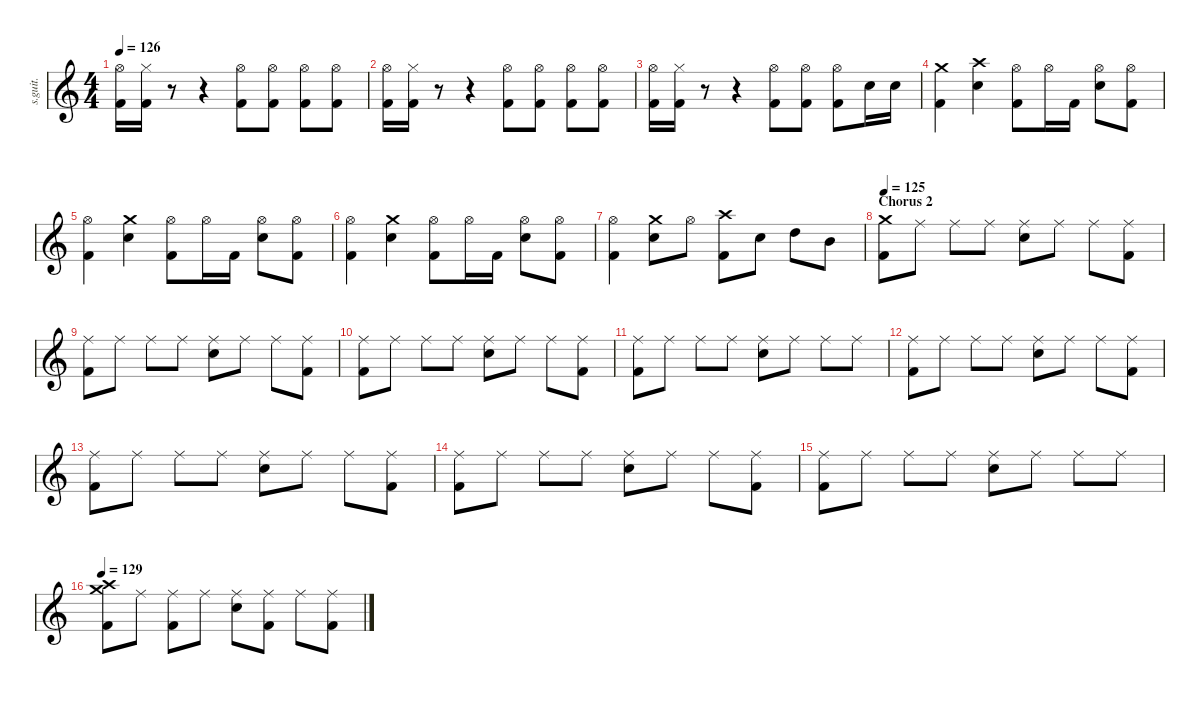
\defaultSystemsLayout 4
\hideDynamics
\bracketExtendMode nobrackets
\track ("John Dolmayan" "s.guit.") {instrument percussion}
\staff {score}
\articulation defaults
\ts (4 4)
\tempo 126
\clef g2
\ks c
("Hi-Hat (open)" "Kick (hit) 2").16{lyrics (0 "") lyrics (1 "") lyrics (2 "") lyrics (3 "") lyrics (4 "") dy f} ("Hi-Hat (closed)" "Kick (hit) 2").16{lyrics (0 "") lyrics (1 "") lyrics (2 "") lyrics (3 "") lyrics (4 "")} r.8 r.4 ("Hi-Hat (open)" "Kick (hit) 2").8{lyrics (0 "") lyrics (1 "") lyrics (2 "") lyrics (3 "") lyrics (4 "") dy ff} ("Hi-Hat (open)" "Kick (hit) 2").8{lyrics (0 "") lyrics (1 "") lyrics (2 "") lyrics (3 "") lyrics (4 "")} ("Hi-Hat (open)" "Kick (hit) 2").8{lyrics (0 "") lyrics (1 "") lyrics (2 "") lyrics (3 "") lyrics (4 "")} ("Hi-Hat (open)" "Kick (hit) 2").8{lyrics (0 "") lyrics (1 "") lyrics (2 "") lyrics (3 "") lyrics (4 "")} |
("Hi-Hat (open)" "Kick (hit) 2").16{lyrics (0 "") lyrics (1 "") lyrics (2 "") lyrics (3 "") lyrics (4 "") dy f} ("Hi-Hat (closed)" "Kick (hit) 2").16{lyrics (0 "") lyrics (1 "") lyrics (2 "") lyrics (3 "") lyrics (4 "")} r.8 r.4 ("Hi-Hat (open)" "Kick (hit) 2").8{lyrics (0 "") lyrics (1 "") lyrics (2 "") lyrics (3 "") lyrics (4 "") dy ff} ("Hi-Hat (open)" "Kick (hit) 2").8{lyrics (0 "") lyrics (1 "") lyrics (2 "") lyrics (3 "") lyrics (4 "")} ("Hi-Hat (open)" "Kick (hit) 2").8{lyrics (0 "") lyrics (1 "") lyrics (2 "") lyrics (3 "") lyrics (4 "")} ("Hi-Hat (open)" "Kick (hit) 2").8{lyrics (0 "") lyrics (1 "") lyrics (2 "") lyrics (3 "") lyrics (4 "")} |
("Hi-Hat (open)" "Kick (hit) 2").16{lyrics (0 "") lyrics (1 "") lyrics (2 "") lyrics (3 "") lyrics (4 "") dy f} ("Hi-Hat (closed)" "Kick (hit) 2").16{lyrics (0 "") lyrics (1 "") lyrics (2 "") lyrics (3 "") lyrics (4 "")} r.8 r.4 ("Hi-Hat (open)" "Kick (hit) 2").8{lyrics (0 "") lyrics (1 "") lyrics (2 "") lyrics (3 "") lyrics (4 "")} ("Hi-Hat (open)" "Kick (hit) 2").8{lyrics (0 "") lyrics (1 "") lyrics (2 "") lyrics (3 "") lyrics (4 "")} ("Hi-Hat (open)" "Kick (hit) 2").8{lyrics (0 "") lyrics (1 "") lyrics (2 "") lyrics (3 "") lyrics (4 "")} "Snare (hit) 2".16{lyrics (0 "") lyrics (1 "") lyrics (2 "") lyrics (3 "") lyrics (4 "")} "Snare (hit) 2".16{lyrics (0 "") lyrics (1 "") lyrics (2 "") lyrics (3 "") lyrics (4 "")} |
("Crash medium (hit)" "Kick (hit) 2").4{lyrics (0 "") lyrics (1 "") lyrics (2 "") lyrics (3 "") lyrics (4 "")} ("Crash high (hit)" "Snare (hit) 2").4{lyrics (0 "") lyrics (1 "") lyrics (2 "") lyrics (3 "") lyrics (4 "")} ("Hi-Hat (open)" "Kick (hit) 2").8{lyrics (0 "") lyrics (1 "") lyrics (2 "") lyrics (3 "") lyrics (4 "")} "Hi-Hat (open)".16{lyrics (0 "") lyrics (1 "") lyrics (2 "") lyrics (3 "") lyrics (4 "")} "Kick (hit) 2".16{lyrics (0 "") lyrics (1 "") lyrics (2 "") lyrics (3 "") lyrics (4 "")} ("Hi-Hat (open)" "Snare (hit) 2").8{lyrics (0 "") lyrics (1 "") lyrics (2 "") lyrics (3 "") lyrics (4 "")} ("Hi-Hat (open)" "Kick (hit) 2").8{lyrics (0 "") lyrics (1 "") lyrics (2 "") lyrics (3 "") lyrics (4 "")} |
("Hi-Hat (open)" "Kick (hit) 2").4{lyrics (0 "") lyrics (1 "") lyrics (2 "") lyrics (3 "") lyrics (4 "")} ("Crash medium (hit)" "Snare (hit) 2").4{lyrics (0 "") lyrics (1 "") lyrics (2 "") lyrics (3 "") lyrics (4 "")} ("Hi-Hat (open)" "Kick (hit) 2").8{lyrics (0 "") lyrics (1 "") lyrics (2 "") lyrics (3 "") lyrics (4 "")} "Hi-Hat (open)".16{lyrics (0 "") lyrics (1 "") lyrics (2 "") lyrics (3 "") lyrics (4 "")} "Kick (hit) 2".16{lyrics (0 "") lyrics (1 "") lyrics (2 "") lyrics (3 "") lyrics (4 "")} ("Hi-Hat (open)" "Snare (hit) 2").8{lyrics (0 "") lyrics (1 "") lyrics (2 "") lyrics (3 "") lyrics (4 "")} ("Hi-Hat (open)" "Kick (hit) 2").8{lyrics (0 "") lyrics (1 "") lyrics (2 "") lyrics (3 "") lyrics (4 "")} |
("Hi-Hat (open)" "Kick (hit) 2").4{lyrics (0 "") lyrics (1 "") lyrics (2 "") lyrics (3 "") lyrics (4 "")} ("Crash medium (hit)" "Snare (hit) 2").4{lyrics (0 "") lyrics (1 "") lyrics (2 "") lyrics (3 "") lyrics (4 "")} ("Hi-Hat (open)" "Kick (hit) 2").8{lyrics (0 "") lyrics (1 "") lyrics (2 "") lyrics (3 "") lyrics (4 "")} "Hi-Hat (open)".16{lyrics (0 "") lyrics (1 "") lyrics (2 "") lyrics (3 "") lyrics (4 "")} "Kick (hit) 2".16{lyrics (0 "") lyrics (1 "") lyrics (2 "") lyrics (3 "") lyrics (4 "")} ("Hi-Hat (open)" "Snare (hit) 2").8{lyrics (0 "") lyrics (1 "") lyrics (2 "") lyrics (3 "") lyrics (4 "")} ("Hi-Hat (open)" "Kick (hit) 2").8{lyrics (0 "") lyrics (1 "") lyrics (2 "") lyrics (3 "") lyrics (4 "")} |
("Hi-Hat (open)" "Kick (hit) 2").4{lyrics (0 "") lyrics (1 "") lyrics (2 "") lyrics (3 "") lyrics (4 "")} ("Crash medium (hit)" "Snare (hit) 2").8{lyrics (0 "") lyrics (1 "") lyrics (2 "") lyrics (3 "") lyrics (4 "")} "Hi-Hat (open)".8{lyrics (0 "") lyrics (1 "") lyrics (2 "") lyrics (3 "") lyrics (4 "")} ("Crash high (hit)" "Kick (hit) 2").8{lyrics (0 "") lyrics (1 "") lyrics (2 "") lyrics (3 "") lyrics (4 "")} "Snare (hit) 2".8{lyrics (0 "") lyrics (1 "") lyrics (2 "") lyrics (3 "") lyrics (4 "")} "High Tom (hit)".8{lyrics (0 "") lyrics (1 "") lyrics (2 "") lyrics (3 "") lyrics (4 "")} "Mid Tom (hit)".8{lyrics (0 "") lyrics (1 "") lyrics (2 "") lyrics (3 "") lyrics (4 "")} |
\section ("" "Chorus 2")
\tempo 125
("Crash medium (hit)" "Kick (hit) 2").8{lyrics (0 "") lyrics (1 "") lyrics (2 "") lyrics (3 "") lyrics (4 "")} "Ride (middle)".8{lyrics (0 "") lyrics (1 "") lyrics (2 "") lyrics (3 "") lyrics (4 "")} "Ride (middle)".8{lyrics (0 "") lyrics (1 "") lyrics (2 "") lyrics (3 "") lyrics (4 "")} "Ride (middle)".8{lyrics (0 "") lyrics (1 "") lyrics (2 "") lyrics (3 "") lyrics (4 "")} ("Ride (middle)" "Snare (hit) 2").8{lyrics (0 "") lyrics (1 "") lyrics (2 "") lyrics (3 "") lyrics (4 "")} "Ride (middle)".8{lyrics (0 "") lyrics (1 "") lyrics (2 "") lyrics (3 "") lyrics (4 "")} "Ride (middle)".8{lyrics (0 "") lyrics (1 "") lyrics (2 "") lyrics (3 "") lyrics (4 "")} ("Ride (middle)" "Kick (hit) 2").8{lyrics (0 "") lyrics (1 "") lyrics (2 "") lyrics (3 "") lyrics (4 "")} |
("Ride (middle)" "Kick (hit) 2").8{lyrics (0 "") lyrics (1 "") lyrics (2 "") lyrics (3 "") lyrics (4 "")} "Ride (middle)".8{lyrics (0 "") lyrics (1 "") lyrics (2 "") lyrics (3 "") lyrics (4 "")} "Ride (middle)".8{lyrics (0 "") lyrics (1 "") lyrics (2 "") lyrics (3 "") lyrics (4 "")} "Ride (middle)".8{lyrics (0 "") lyrics (1 "") lyrics (2 "") lyrics (3 "") lyrics (4 "")} ("Ride (middle)" "Snare (hit) 2").8{lyrics (0 "") lyrics (1 "") lyrics (2 "") lyrics (3 "") lyrics (4 "")} "Ride (middle)".8{lyrics (0 "") lyrics (1 "") lyrics (2 "") lyrics (3 "") lyrics (4 "")} "Ride (middle)".8{lyrics (0 "") lyrics (1 "") lyrics (2 "") lyrics (3 "") lyrics (4 "")} ("Ride (middle)" "Kick (hit) 2").8{lyrics (0 "") lyrics (1 "") lyrics (2 "") lyrics (3 "") lyrics (4 "")} |
("Ride (middle)" "Kick (hit) 2").8{lyrics (0 "") lyrics (1 "") lyrics (2 "") lyrics (3 "") lyrics (4 "")} "Ride (middle)".8{lyrics (0 "") lyrics (1 "") lyrics (2 "") lyrics (3 "") lyrics (4 "")} "Ride (middle)".8{lyrics (0 "") lyrics (1 "") lyrics (2 "") lyrics (3 "") lyrics (4 "")} "Ride (middle)".8{lyrics (0 "") lyrics (1 "") lyrics (2 "") lyrics (3 "") lyrics (4 "")} ("Ride (middle)" "Snare (hit) 2").8{lyrics (0 "") lyrics (1 "") lyrics (2 "") lyrics (3 "") lyrics (4 "")} "Ride (middle)".8{lyrics (0 "") lyrics (1 "") lyrics (2 "") lyrics (3 "") lyrics (4 "")} "Ride (middle)".8{lyrics (0 "") lyrics (1 "") lyrics (2 "") lyrics (3 "") lyrics (4 "")} ("Ride (middle)" "Kick (hit) 2").8{lyrics (0 "") lyrics (1 "") lyrics (2 "") lyrics (3 "") lyrics (4 "")} |
("Ride (middle)" "Kick (hit) 2").8{lyrics (0 "") lyrics (1 "") lyrics (2 "") lyrics (3 "") lyrics (4 "")} "Ride (middle)".8{lyrics (0 "") lyrics (1 "") lyrics (2 "") lyrics (3 "") lyrics (4 "")} "Ride (middle)".8{lyrics (0 "") lyrics (1 "") lyrics (2 "") lyrics (3 "") lyrics (4 "")} "Ride (middle)".8{lyrics (0 "") lyrics (1 "") lyrics (2 "") lyrics (3 "") lyrics (4 "")} ("Ride (middle)" "Snare (hit) 2").8{lyrics (0 "") lyrics (1 "") lyrics (2 "") lyrics (3 "") lyrics (4 "")} "Ride (middle)".8{lyrics (0 "") lyrics (1 "") lyrics (2 "") lyrics (3 "") lyrics (4 "")} "Ride (middle)".8{lyrics (0 "") lyrics (1 "") lyrics (2 "") lyrics (3 "") lyrics (4 "")} "Ride (middle)".8{lyrics (0 "") lyrics (1 "") lyrics (2 "") lyrics (3 "") lyrics (4 "")} |
("Ride (middle)" "Kick (hit) 2").8{lyrics (0 "") lyrics (1 "") lyrics (2 "") lyrics (3 "") lyrics (4 "")} "Ride (middle)".8{lyrics (0 "") lyrics (1 "") lyrics (2 "") lyrics (3 "") lyrics (4 "")} "Ride (middle)".8{lyrics (0 "") lyrics (1 "") lyrics (2 "") lyrics (3 "") lyrics (4 "")} "Ride (middle)".8{lyrics (0 "") lyrics (1 "") lyrics (2 "") lyrics (3 "") lyrics (4 "")} ("Ride (middle)" "Snare (hit) 2").8{lyrics (0 "") lyrics (1 "") lyrics (2 "") lyrics (3 "") lyrics (4 "")} "Ride (middle)".8{lyrics (0 "") lyrics (1 "") lyrics (2 "") lyrics (3 "") lyrics (4 "")} "Ride (middle)".8{lyrics (0 "") lyrics (1 "") lyrics (2 "") lyrics (3 "") lyrics (4 "")} ("Ride (middle)" "Kick (hit) 2").8{lyrics (0 "") lyrics (1 "") lyrics (2 "") lyrics (3 "") lyrics (4 "")} |
("Ride (middle)" "Kick (hit) 2").8{lyrics (0 "") lyrics (1 "") lyrics (2 "") lyrics (3 "") lyrics (4 "")} "Ride (middle)".8{lyrics (0 "") lyrics (1 "") lyrics (2 "") lyrics (3 "") lyrics (4 "")} "Ride (middle)".8{lyrics (0 "") lyrics (1 "") lyrics (2 "") lyrics (3 "") lyrics (4 "")} "Ride (middle)".8{lyrics (0 "") lyrics (1 "") lyrics (2 "") lyrics (3 "") lyrics (4 "")} ("Ride (middle)" "Snare (hit) 2").8{lyrics (0 "") lyrics (1 "") lyrics (2 "") lyrics (3 "") lyrics (4 "")} "Ride (middle)".8{lyrics (0 "") lyrics (1 "") lyrics (2 "") lyrics (3 "") lyrics (4 "")} "Ride (middle)".8{lyrics (0 "") lyrics (1 "") lyrics (2 "") lyrics (3 "") lyrics (4 "")} ("Ride (middle)" "Kick (hit) 2").8{lyrics (0 "") lyrics (1 "") lyrics (2 "") lyrics (3 "") lyrics (4 "")} |
("Ride (middle)" "Kick (hit) 2").8{lyrics (0 "") lyrics (1 "") lyrics (2 "") lyrics (3 "") lyrics (4 "")} "Ride (middle)".8{lyrics (0 "") lyrics (1 "") lyrics (2 "") lyrics (3 "") lyrics (4 "")} "Ride (middle)".8{lyrics (0 "") lyrics (1 "") lyrics (2 "") lyrics (3 "") lyrics (4 "")} "Ride (middle)".8{lyrics (0 "") lyrics (1 "") lyrics (2 "") lyrics (3 "") lyrics (4 "")} ("Ride (middle)" "Snare (hit) 2").8{lyrics (0 "") lyrics (1 "") lyrics (2 "") lyrics (3 "") lyrics (4 "")} "Ride (middle)".8{lyrics (0 "") lyrics (1 "") lyrics (2 "") lyrics (3 "") lyrics (4 "")} "Ride (middle)".8{lyrics (0 "") lyrics (1 "") lyrics (2 "") lyrics (3 "") lyrics (4 "")} ("Ride (middle)" "Kick (hit) 2").8{lyrics (0 "") lyrics (1 "") lyrics (2 "") lyrics (3 "") lyrics (4 "")} |
("Ride (middle)" "Kick (hit) 2").8{lyrics (0 "") lyrics (1 "") lyrics (2 "") lyrics (3 "") lyrics (4 "")} "Ride (middle)".8{lyrics (0 "") lyrics (1 "") lyrics (2 "") lyrics (3 "") lyrics (4 "")} "Ride (middle)".8{lyrics (0 "") lyrics (1 "") lyrics (2 "") lyrics (3 "") lyrics (4 "")} "Ride (middle)".8{lyrics (0 "") lyrics (1 "") lyrics (2 "") lyrics (3 "") lyrics (4 "")} ("Ride (middle)" "Snare (hit) 2").8{lyrics (0 "") lyrics (1 "") lyrics (2 "") lyrics (3 "") lyrics (4 "")} "Ride (middle)".8{lyrics (0 "") lyrics (1 "") lyrics (2 "") lyrics (3 "") lyrics (4 "")} "Ride (middle)".8{lyrics (0 "") lyrics (1 "") lyrics (2 "") lyrics (3 "") lyrics (4 "")} "Ride (middle)".8{lyrics (0 "") lyrics (1 "") lyrics (2 "") lyrics (3 "") lyrics (4 "")} |
\tempo 129
("Crash medium (hit)" "Crash high (hit)" "Kick (hit) 2").8{lyrics (0 "") lyrics (1 "") lyrics (2 "") lyrics (3 "") lyrics (4 "")} "Ride (middle)".8{lyrics (0 "") lyrics (1 "") lyrics (2 "") lyrics (3 "") lyrics (4 "")} ("Ride (middle)" "Kick (hit) 2").8{lyrics (0 "") lyrics (1 "") lyrics (2 "") lyrics (3 "") lyrics (4 "")} "Ride (middle)".8{lyrics (0 "") lyrics (1 "") lyrics (2 "") lyrics (3 "") lyrics (4 "")} ("Ride (middle)" "Snare (hit) 2").8{lyrics (0 "") lyrics (1 "") lyrics (2 "") lyrics (3 "") lyrics (4 "")} ("Ride (middle)" "Kick (hit) 2").8{lyrics (0 "") lyrics (1 "") lyrics (2 "") lyrics (3 "") lyrics (4 "")} "Ride (middle)".8{lyrics (0 "") lyrics (1 "") lyrics (2 "") lyrics (3 "") lyrics (4 "")} ("Ride (middle)" "Kick (hit) 2").8{lyrics (0 "") lyrics (1 "") lyrics (2 "") lyrics (3 "") lyrics (4 "")}
